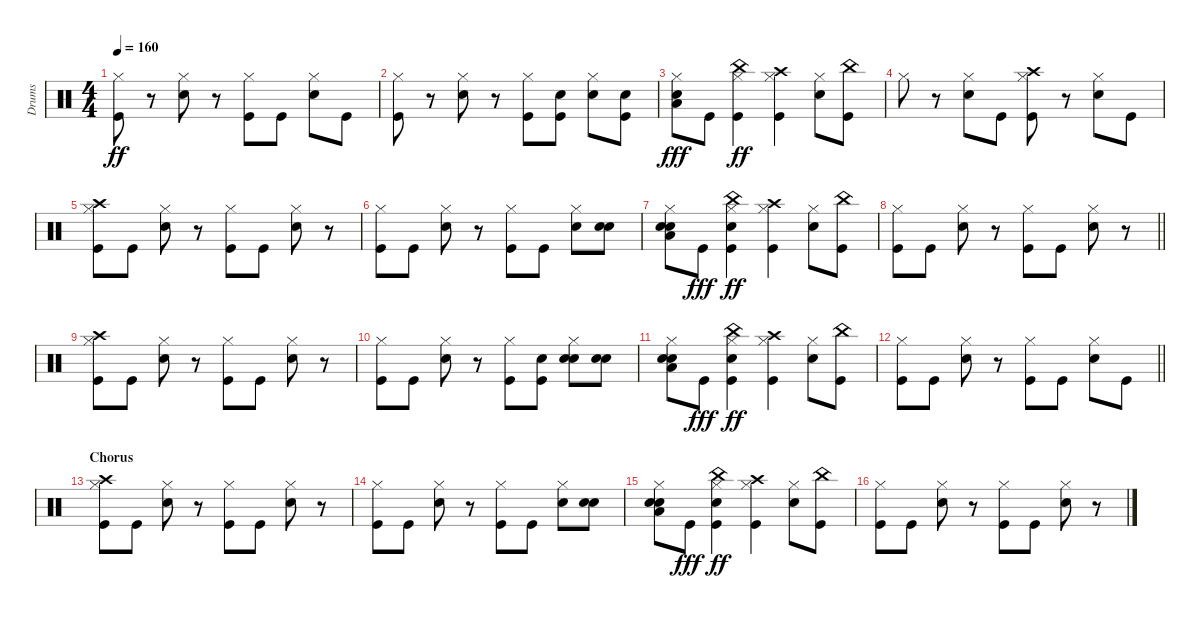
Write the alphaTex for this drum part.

\track ("Drums" "Drums") {instrument percussion}
\staff {score}
\articulation defaults
\ts (4 4)
\tempo 160
\clef neutral
\ks c
("Hi-Hat (closed)" "Kick (hit)").8{dy ff} r.8 ("Hi-Hat (closed)" "Snare (hit) 2").8 r.8 ("Hi-Hat (closed)" "Kick (hit)").8 "Kick (hit)".8 ("Hi-Hat (closed)" "Snare (hit) 2").8 "Kick (hit)".8 |
("Hi-Hat (closed)" "Kick (hit)").8 r.8 ("Hi-Hat (closed)" "Snare (hit) 2").8 r.8 ("Hi-Hat (closed)" "Kick (hit)").8 ("Snare (hit) 2" "Kick (hit)").8 ("Snare (hit) 2" "Hi-Hat (closed)").8 ("Snare (hit) 2" "Kick (hit)").8 |
("Snare (hit) 2" "Hi-Hat (closed)" "Low Floor Tom (hit)").8{dy fff} "Kick (hit)".8 ("China (hit)" "Hi-Hat (closed)" "Kick (hit)").4{dy ff} ("Kick (hit)" "Crash high (hit)" "Hi-Hat (closed)").4 ("Hi-Hat (closed)" "Snare (hit) 2").8 ("Kick (hit)" "China (hit)").8 |
"Hi-Hat (closed)".8 r.8 ("Hi-Hat (closed)" "Snare (hit) 2").8 "Kick (hit)".8 ("Kick (hit)" "Crash high (hit)" "Hi-Hat (closed)").8 r.8 ("Hi-Hat (closed)" "Snare (hit) 2").8 "Kick (hit)".8 |
("Kick (hit)" "Crash high (hit)" "Hi-Hat (closed)").8 "Kick (hit)".8 ("Hi-Hat (closed)" "Snare (hit) 2").8 r.8 ("Hi-Hat (closed)" "Kick (hit)").8 "Kick (hit)".8 ("Hi-Hat (closed)" "Snare (hit) 2").8 r.8 |
("Hi-Hat (closed)" "Kick (hit)").8 "Kick (hit)".8 ("Hi-Hat (closed)" "Snare (hit) 2").8 r.8 ("Hi-Hat (closed)" "Kick (hit)").8 "Kick (hit)".8 ("Hi-Hat (closed)" "Snare (hit) 2").8 ("Snare (hit) 2" "Snare (hit) 2").8 |
("Snare (hit) 2" "Snare (hit) 2" "Hi-Hat (closed)" "Low Floor Tom (hit)").8 "Kick (hit)".8{dy fff} ("Kick (hit)" "China (hit)" "Hi-Hat (closed)" "Snare (hit) 2").4{dy ff} ("Kick (hit)" "Crash high (hit)" "Hi-Hat (closed)").4 ("Hi-Hat (closed)" "Snare (hit) 2").8 ("China (hit)" "Kick (hit)").8 |
\barLineRight lightlight
("Hi-Hat (closed)" "Kick (hit)").8 "Kick (hit)".8 ("Hi-Hat (closed)" "Snare (hit) 2").8 r.8 ("Hi-Hat (closed)" "Kick (hit)").8 "Kick (hit)".8 ("Hi-Hat (closed)" "Snare (hit) 2").8 r.8 |
("Crash high (hit)" "Hi-Hat (closed)" "Kick (hit)").8 "Kick (hit)".8 ("Hi-Hat (closed)" "Snare (hit) 2").8 r.8 ("Hi-Hat (closed)" "Kick (hit)").8 "Kick (hit)".8 ("Hi-Hat (closed)" "Snare (hit) 2").8 r.8 |
("Hi-Hat (closed)" "Kick (hit)").8 "Kick (hit)".8 ("Hi-Hat (closed)" "Snare (hit) 2").8 r.8 ("Hi-Hat (closed)" "Kick (hit)").8 ("Snare (hit) 2" "Kick (hit)").8 ("Snare (hit) 2" "Hi-Hat (closed)" "Snare (hit) 2").8 ("Snare (hit) 2" "Snare (hit) 2").8 |
("Snare (hit) 2" "Snare (hit) 2" "Low Floor Tom (hit)" "Hi-Hat (closed)").8 "Kick (hit)".8{dy fff} ("Kick (hit)" "China (hit)" "Hi-Hat (closed)" "Snare (hit) 2").4{dy ff} ("Kick (hit)" "Crash high (hit)" "Hi-Hat (closed)").4 ("Hi-Hat (closed)" "Snare (hit) 2").8 ("China (hit)" "Kick (hit)").8 |
\barLineRight lightlight
("Hi-Hat (closed)" "Kick (hit)").8 "Kick (hit)".8 ("Hi-Hat (closed)" "Snare (hit) 2").8 r.8 ("Hi-Hat (closed)" "Kick (hit)").8 "Kick (hit)".8 ("Hi-Hat (closed)" "Snare (hit) 2").8 "Kick (hit)".8 |
\section ("" "Chorus")
("Crash high (hit)" "Hi-Hat (closed)" "Kick (hit)").8 "Kick (hit)".8 ("Hi-Hat (closed)" "Snare (hit) 2").8 r.8 ("Hi-Hat (closed)" "Kick (hit)").8 "Kick (hit)".8 ("Hi-Hat (closed)" "Snare (hit) 2").8 r.8 |
("Hi-Hat (closed)" "Kick (hit)").8 "Kick (hit)".8 ("Hi-Hat (closed)" "Snare (hit) 2").8 r.8 ("Hi-Hat (closed)" "Kick (hit)").8 "Kick (hit)".8 ("Hi-Hat (closed)" "Snare (hit) 2").8 ("Snare (hit) 2" "Snare (hit) 2").8 |
("Snare (hit) 2" "Snare (hit) 2" "Hi-Hat (closed)" "Low Floor Tom (hit)").8 "Kick (hit)".8{dy fff} ("Kick (hit)" "China (hit)" "Hi-Hat (closed)" "Snare (hit) 2").4{dy ff} ("Kick (hit)" "Crash high (hit)" "Hi-Hat (closed)").4 ("Hi-Hat (closed)" "Snare (hit) 2").8 ("China (hit)" "Kick (hit)").8 |
("Hi-Hat (closed)" "Kick (hit)").8 "Kick (hit)".8 ("Hi-Hat (closed)" "Snare (hit) 2").8 r.8 ("Hi-Hat (closed)" "Kick (hit)").8 "Kick (hit)".8 ("Hi-Hat (closed)" "Snare (hit) 2").8 r.8
